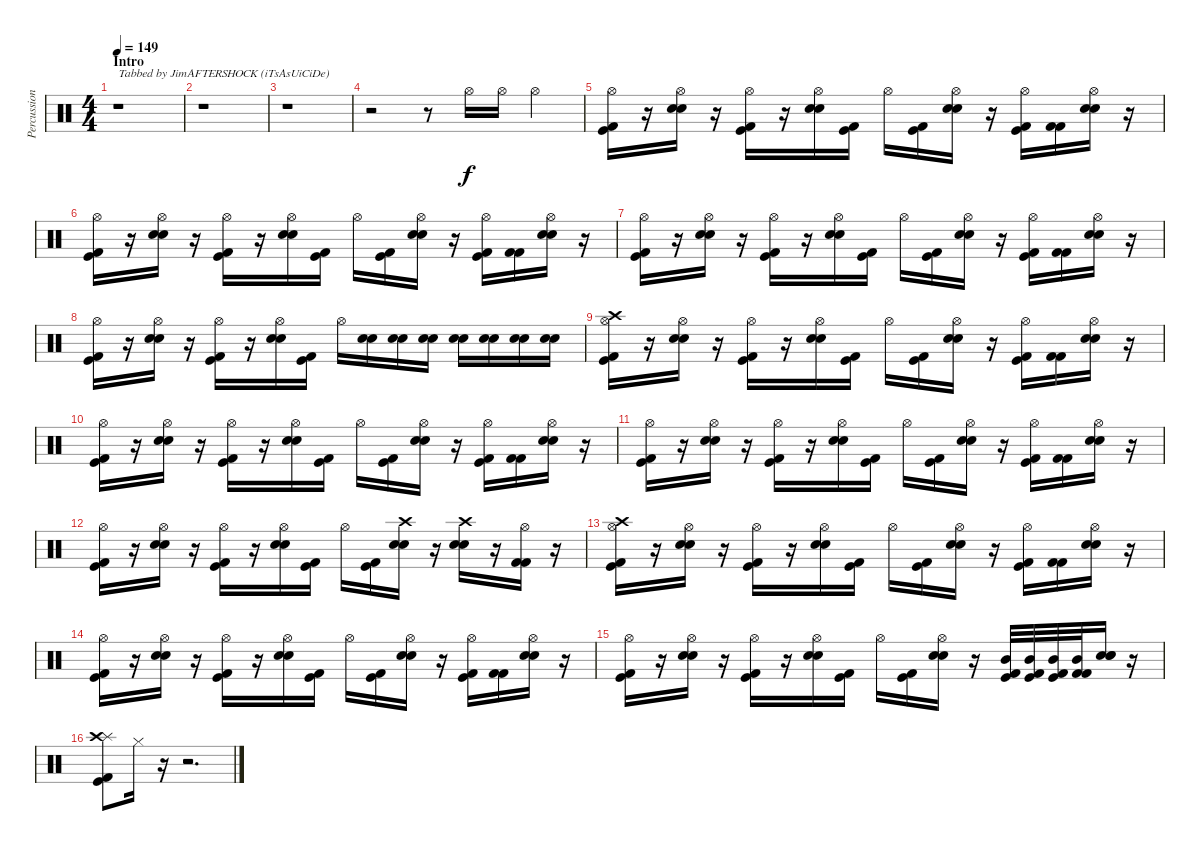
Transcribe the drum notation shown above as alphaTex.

\track ("Percussioni" "Percussion") {instrument percussion}
\staff {score}
\articulation defaults
\ts (4 4)
\section ("" "Intro")
\tempo 149
\clef neutral
\ks c
r.1{txt "Tabbed by JimAFTERSHOCK (iTsAsUiCiDe)" dy f} |
r.1 |
r.1 |
r.2 r.8 "Hi-Hat (open)".16 "Hi-Hat (open)".16 "Hi-Hat (open)".4 |
("Hi-Hat (open)" "Kick (hit) 2" "Kick (hit)").16 r.16 ("Hi-Hat (open)" "Snare (hit) 2" "Snare (hit) 2").16 r.16 ("Hi-Hat (open)" "Kick (hit)" "Kick (hit) 2").16 r.16 ("Hi-Hat (open)" "Snare (hit) 2" "Snare (hit) 2").16 ("Kick (hit)" "Kick (hit) 2").16 "Hi-Hat (open)".16 ("Kick (hit) 2" "Kick (hit)").16 ("Hi-Hat (open)" "Snare (hit) 2" "Snare (hit) 2").16 r.16 ("Hi-Hat (open)" "Kick (hit)" "Kick (hit) 2").16 ("Kick (hit) 2" "Kick (hit) 2").16 ("Hi-Hat (open)" "Snare (hit) 2" "Snare (hit) 2").16 r.16 |
("Hi-Hat (open)" "Kick (hit) 2" "Kick (hit)").16 r.16 ("Hi-Hat (open)" "Snare (hit) 2" "Snare (hit) 2").16 r.16 ("Hi-Hat (open)" "Kick (hit)" "Kick (hit) 2").16 r.16 ("Hi-Hat (open)" "Snare (hit) 2" "Snare (hit) 2").16 ("Kick (hit)" "Kick (hit) 2").16 "Hi-Hat (open)".16 ("Kick (hit) 2" "Kick (hit)").16 ("Hi-Hat (open)" "Snare (hit) 2" "Snare (hit) 2").16 r.16 ("Hi-Hat (open)" "Kick (hit)" "Kick (hit) 2").16 ("Kick (hit) 2" "Kick (hit) 2").16 ("Hi-Hat (open)" "Snare (hit) 2" "Snare (hit) 2").16 r.16 |
("Hi-Hat (open)" "Kick (hit) 2" "Kick (hit)").16 r.16 ("Hi-Hat (open)" "Snare (hit) 2" "Snare (hit) 2").16 r.16 ("Hi-Hat (open)" "Kick (hit)" "Kick (hit) 2").16 r.16 ("Hi-Hat (open)" "Snare (hit) 2" "Snare (hit) 2").16 ("Kick (hit)" "Kick (hit) 2").16 "Hi-Hat (open)".16 ("Kick (hit) 2" "Kick (hit)").16 ("Hi-Hat (open)" "Snare (hit) 2" "Snare (hit) 2").16 r.16 ("Hi-Hat (open)" "Kick (hit)" "Kick (hit) 2").16 ("Kick (hit) 2" "Kick (hit) 2").16 ("Hi-Hat (open)" "Snare (hit) 2" "Snare (hit) 2").16 r.16 |
("Hi-Hat (open)" "Kick (hit) 2" "Kick (hit)").16 r.16 ("Hi-Hat (open)" "Snare (hit) 2" "Snare (hit) 2").16 r.16 ("Hi-Hat (open)" "Kick (hit)" "Kick (hit) 2").16 r.16 ("Hi-Hat (open)" "Snare (hit) 2" "Snare (hit) 2").16 ("Kick (hit)" "Kick (hit) 2").16 "Hi-Hat (open)".16 ("Snare (hit) 2" "Snare (hit) 2").16 ("Snare (hit) 2" "Snare (hit) 2").16 ("Snare (hit) 2" "Snare (hit) 2").16 ("Snare (hit) 2" "Snare (hit) 2").16 ("Snare (hit) 2" "Snare (hit) 2").16 ("Snare (hit) 2" "Snare (hit) 2").16 ("Snare (hit) 2" "Snare (hit) 2").16 |
("Hi-Hat (open)" "Crash high (hit)" "Kick (hit) 2" "Kick (hit)").16 r.16 ("Hi-Hat (open)" "Snare (hit) 2" "Snare (hit) 2").16 r.16 ("Hi-Hat (open)" "Kick (hit)" "Kick (hit) 2").16 r.16 ("Hi-Hat (open)" "Snare (hit) 2" "Snare (hit) 2").16 ("Kick (hit)" "Kick (hit) 2").16 "Hi-Hat (open)".16 ("Kick (hit) 2" "Kick (hit)").16 ("Hi-Hat (open)" "Snare (hit) 2" "Snare (hit) 2").16 r.16 ("Hi-Hat (open)" "Kick (hit)" "Kick (hit) 2").16 ("Kick (hit) 2" "Kick (hit) 2").16 ("Hi-Hat (open)" "Snare (hit) 2" "Snare (hit) 2").16 r.16 |
("Hi-Hat (open)" "Kick (hit) 2" "Kick (hit)").16 r.16 ("Hi-Hat (open)" "Snare (hit) 2" "Snare (hit) 2").16 r.16 ("Hi-Hat (open)" "Kick (hit)" "Kick (hit) 2").16 r.16 ("Hi-Hat (open)" "Snare (hit) 2" "Snare (hit) 2").16 ("Kick (hit)" "Kick (hit) 2").16 "Hi-Hat (open)".16 ("Kick (hit) 2" "Kick (hit)").16 ("Hi-Hat (open)" "Snare (hit) 2" "Snare (hit) 2").16 r.16 ("Hi-Hat (open)" "Kick (hit)" "Kick (hit) 2").16 ("Kick (hit) 2" "Kick (hit) 2").16 ("Hi-Hat (open)" "Snare (hit) 2" "Snare (hit) 2").16 r.16 |
("Hi-Hat (open)" "Kick (hit) 2" "Kick (hit)").16 r.16 ("Hi-Hat (open)" "Snare (hit) 2" "Snare (hit) 2").16 r.16 ("Hi-Hat (open)" "Kick (hit)" "Kick (hit) 2").16 r.16 ("Hi-Hat (open)" "Snare (hit) 2" "Snare (hit) 2").16 ("Kick (hit)" "Kick (hit) 2").16 "Hi-Hat (open)".16 ("Kick (hit) 2" "Kick (hit)").16 ("Hi-Hat (open)" "Snare (hit) 2" "Snare (hit) 2").16 r.16 ("Hi-Hat (open)" "Kick (hit)" "Kick (hit) 2").16 ("Kick (hit) 2" "Kick (hit) 2").16 ("Hi-Hat (open)" "Snare (hit) 2" "Snare (hit) 2").16 r.16 |
("Hi-Hat (open)" "Kick (hit) 2" "Kick (hit)").16 r.16 ("Hi-Hat (open)" "Snare (hit) 2" "Snare (hit) 2").16 r.16 ("Hi-Hat (open)" "Kick (hit)" "Kick (hit) 2").16 r.16 ("Hi-Hat (open)" "Snare (hit) 2" "Snare (hit) 2").16 ("Kick (hit)" "Kick (hit) 2").16 "Hi-Hat (open)".16 ("Kick (hit) 2" "Kick (hit)").16 ("Crash high (hit)" "Snare (hit) 2" "Snare (hit) 2").16 r.16 ("Crash high (hit)" "Snare (hit) 2" "Snare (hit) 2").16 r.16 ("Hi-Hat (open)" "Kick (hit) 2" "Kick (hit) 2").16 r.16 |
("Hi-Hat (open)" "Crash high (hit)" "Kick (hit) 2" "Kick (hit)").16 r.16 ("Hi-Hat (open)" "Snare (hit) 2" "Snare (hit) 2").16 r.16 ("Hi-Hat (open)" "Kick (hit)" "Kick (hit) 2").16 r.16 ("Hi-Hat (open)" "Snare (hit) 2" "Snare (hit) 2").16 ("Kick (hit)" "Kick (hit) 2").16 "Hi-Hat (open)".16 ("Kick (hit) 2" "Kick (hit)").16 ("Hi-Hat (open)" "Snare (hit) 2" "Snare (hit) 2").16 r.16 ("Hi-Hat (open)" "Kick (hit)" "Kick (hit) 2").16 ("Kick (hit) 2" "Kick (hit) 2").16 ("Hi-Hat (open)" "Snare (hit) 2" "Snare (hit) 2").16 r.16 |
("Hi-Hat (open)" "Kick (hit) 2" "Kick (hit)").16 r.16 ("Hi-Hat (open)" "Snare (hit) 2" "Snare (hit) 2").16 r.16 ("Hi-Hat (open)" "Kick (hit)" "Kick (hit) 2").16 r.16 ("Hi-Hat (open)" "Snare (hit) 2" "Snare (hit) 2").16 ("Kick (hit)" "Kick (hit) 2").16 "Hi-Hat (open)".16 ("Kick (hit) 2" "Kick (hit)").16 ("Hi-Hat (open)" "Snare (hit) 2" "Snare (hit) 2").16 r.16 ("Hi-Hat (open)" "Kick (hit)" "Kick (hit) 2").16 ("Kick (hit) 2" "Kick (hit) 2").16 ("Hi-Hat (open)" "Snare (hit) 2" "Snare (hit) 2").16 r.16 |
("Hi-Hat (open)" "Kick (hit) 2" "Kick (hit)").16 r.16 ("Hi-Hat (open)" "Snare (hit) 2" "Snare (hit) 2").16 r.16 ("Hi-Hat (open)" "Kick (hit)" "Kick (hit) 2").16 r.16 ("Hi-Hat (open)" "Snare (hit) 2" "Snare (hit) 2").16 ("Kick (hit)" "Kick (hit) 2").16 "Hi-Hat (open)".16 ("Kick (hit) 2" "Kick (hit)").16 ("Hi-Hat (open)" "Snare (hit) 2" "Snare (hit) 2").16 r.16 ("Mid Tom (hit)" "Kick (hit)" "Kick (hit) 2").32 ("Mid Tom (hit)" "Kick (hit)" "Kick (hit) 2").32 ("Mid Tom (hit)" "Kick (hit)" "Kick (hit) 2").32 ("Mid Tom (hit)" "Kick (hit) 2" "Kick (hit) 2").32 ("Electric Snare (hit)" "Snare (hit) 2" "Snare (hit) 2").16 r.16 |
("Splash (hit)" "Crash high (hit)" "Kick (hit) 2" "Kick (hit)").8 "Hi-Hat (closed)".16 r.16 r.2{d}
